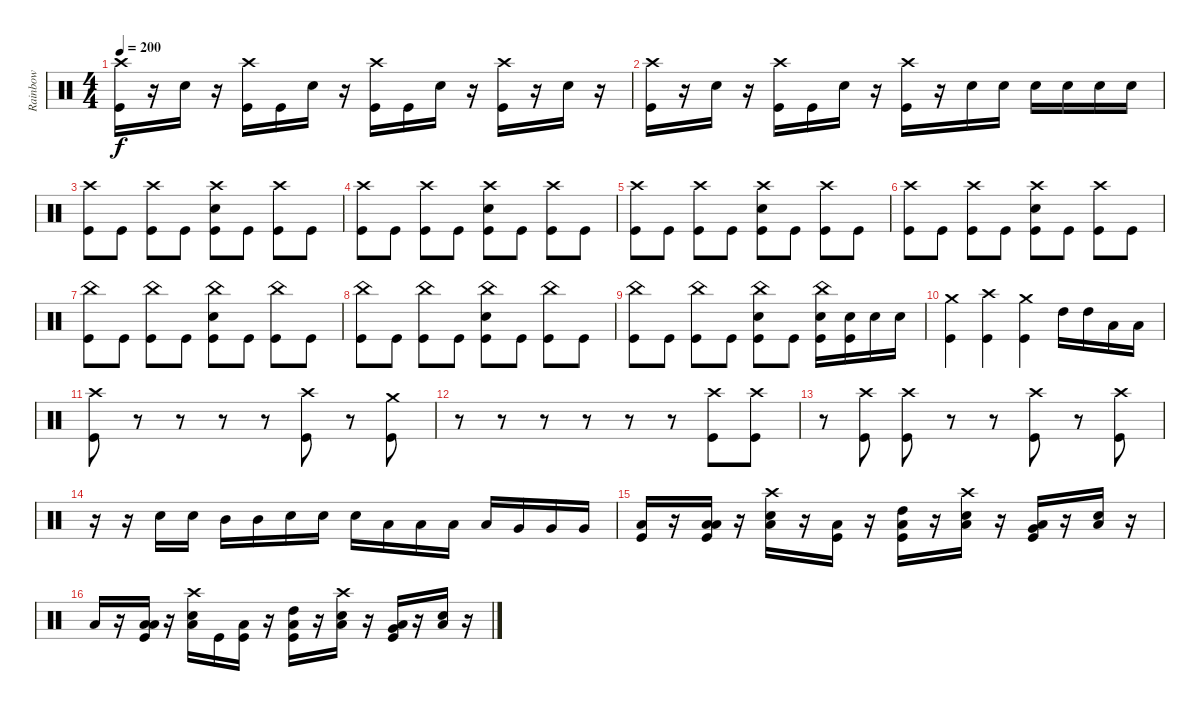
\track ("Rainbow" "Rainbow") {instrument percussion}
\staff {score}
\articulation defaults
\ts (4 4)
\tempo 200
\clef neutral
\ks c
("Crash high (hit)" "Kick (hit)").16{dy f} r.16 "Electric Snare (hit)".16 r.16 ("Crash high (hit)" "Kick (hit)").16 "Kick (hit)".16 "Electric Snare (hit)".16 r.16 ("Crash high (hit)" "Kick (hit)").16 "Kick (hit)".16 "Electric Snare (hit)".16 r.16 ("Crash high (hit)" "Kick (hit)").16 r.16 "Electric Snare (hit)".16 r.16 |
("Crash high (hit)" "Kick (hit)").16 r.16 "Electric Snare (hit)".16 r.16 ("Crash high (hit)" "Kick (hit)").16 "Kick (hit)".16 "Electric Snare (hit)".16 r.16 ("Crash high (hit)" "Kick (hit)").16 r.16 "Electric Snare (hit)".16 "Electric Snare (hit)".16 "Electric Snare (hit)".16 "Electric Snare (hit)".16 "Electric Snare (hit)".16 "Electric Snare (hit)".16 |
("Crash high (hit)" "Kick (hit)").8 "Kick (hit)".8 ("Crash high (hit)" "Kick (hit)").8 "Kick (hit)".8 ("Crash high (hit)" "Electric Snare (hit)" "Kick (hit)").8 "Kick (hit)".8 ("Crash high (hit)" "Kick (hit)").8 "Kick (hit)".8 |
("Crash high (hit)" "Kick (hit)").8 "Kick (hit)".8 ("Crash high (hit)" "Kick (hit)").8 "Kick (hit)".8 ("Crash high (hit)" "Electric Snare (hit)" "Kick (hit)").8 "Kick (hit)".8 ("Crash high (hit)" "Kick (hit)").8 "Kick (hit)".8 |
("Crash high (hit)" "Kick (hit)").8 "Kick (hit)".8 ("Crash high (hit)" "Kick (hit)").8 "Kick (hit)".8 ("Crash high (hit)" "Electric Snare (hit)" "Kick (hit)").8 "Kick (hit)".8 ("Crash high (hit)" "Kick (hit)").8 "Kick (hit)".8 |
("Crash high (hit)" "Kick (hit)").8 "Kick (hit)".8 ("Crash high (hit)" "Kick (hit)").8 "Kick (hit)".8 ("Crash high (hit)" "Electric Snare (hit)" "Kick (hit)").8 "Kick (hit)".8 ("Crash high (hit)" "Kick (hit)").8 "Kick (hit)".8 |
("China (hit)" "Kick (hit)").8 "Kick (hit)".8 ("China (hit)" "Kick (hit)").8 "Kick (hit)".8 ("China (hit)" "Electric Snare (hit)" "Kick (hit)").8 "Kick (hit)".8 ("China (hit)" "Kick (hit)").8 "Kick (hit)".8 |
("China (hit)" "Kick (hit)").8 "Kick (hit)".8 ("China (hit)" "Kick (hit)").8 "Kick (hit)".8 ("China (hit)" "Electric Snare (hit)" "Kick (hit)").8 "Kick (hit)".8 ("China (hit)" "Kick (hit)").8 "Kick (hit)".8 |
("China (hit)" "Kick (hit)").8 "Kick (hit)".8 ("China (hit)" "Kick (hit)").8 "Kick (hit)".8 ("China (hit)" "Electric Snare (hit)" "Kick (hit)").8 "Kick (hit)".8 ("China (hit)" "Electric Snare (hit)" "Kick (hit)").16 ("Electric Snare (hit)" "Kick (hit)").16 "Electric Snare (hit)".16 "Electric Snare (hit)".16 |
("Crash medium (hit)" "Kick (hit)").4 ("Crash high (hit)" "Kick (hit)").4 ("Crash medium (hit)" "Kick (hit)").4 "High Tom (hit)".16 "High Tom (hit)".16 "Low Tom (hit)".16 "Low Tom (hit)".16 |
("Crash high (hit)" "Kick (hit)").8 r.8 r.8 r.8 r.8 ("Crash high (hit)" "Kick (hit)").8 r.8 ("Crash medium (hit)" "Kick (hit)").8 |
r.8 r.8 r.8 r.8 r.8 r.8 ("Crash high (hit)" "Kick (hit)").8 ("Crash high (hit)" "Kick (hit)").8 |
r.8 ("Crash high (hit)" "Kick (hit)").8 ("Crash high (hit)" "Kick (hit)").8 r.8 r.8 ("Crash high (hit)" "Kick (hit)").8 r.8 ("Crash high (hit)" "Kick (hit)").8 |
r.16 r.16 "Electric Snare (hit)".16 "Electric Snare (hit)".16 "Mid Tom (hit)".16 "Mid Tom (hit)".16 "Electric Snare (hit)".16 "Electric Snare (hit)".16 "Electric Snare (hit)".16 "Low Tom (hit)".16 "Low Tom (hit)".16 "Low Tom (hit)".16 "Low Tom (hit)".16 "Very Low Tom (hit)".16 "Very Low Tom (hit)".16 "Very Low Tom (hit)".16 |
("Low Floor Tom (hit)" "Kick (hit)").16 r.16 ("Low Floor Tom (hit)" "Low Tom (hit)" "Kick (hit)").16 r.16 ("Crash high (hit)" "Low Floor Tom (hit)" "Electric Snare (hit)").16 r.16 ("Low Floor Tom (hit)" "Kick (hit)").16 r.16 ("Low Floor Tom (hit)" "High Tom (hit)" "Kick (hit)").16 r.16 ("Crash high (hit)" "Low Floor Tom (hit)" "Electric Snare (hit)").16 r.16 ("Low Floor Tom (hit)" "Very Low Tom (hit)" "Kick (hit)").16 r.16 ("Low Floor Tom (hit)" "Electric Snare (hit)").16 r.16 |
"Low Floor Tom (hit)".16 r.16 ("Low Floor Tom (hit)" "Low Tom (hit)" "Kick (hit)").16 r.16 ("Crash high (hit)" "Low Floor Tom (hit)" "Electric Snare (hit)").16 "Kick (hit)".16 ("Low Floor Tom (hit)" "Kick (hit)").16 r.16 ("Low Floor Tom (hit)" "High Tom (hit)" "Kick (hit)").16 r.16 ("Crash high (hit)" "Low Floor Tom (hit)" "Electric Snare (hit)").16 r.16 ("Low Floor Tom (hit)" "Very Low Tom (hit)" "Kick (hit)").16 r.16 ("Low Floor Tom (hit)" "Electric Snare (hit)").16 r.16
